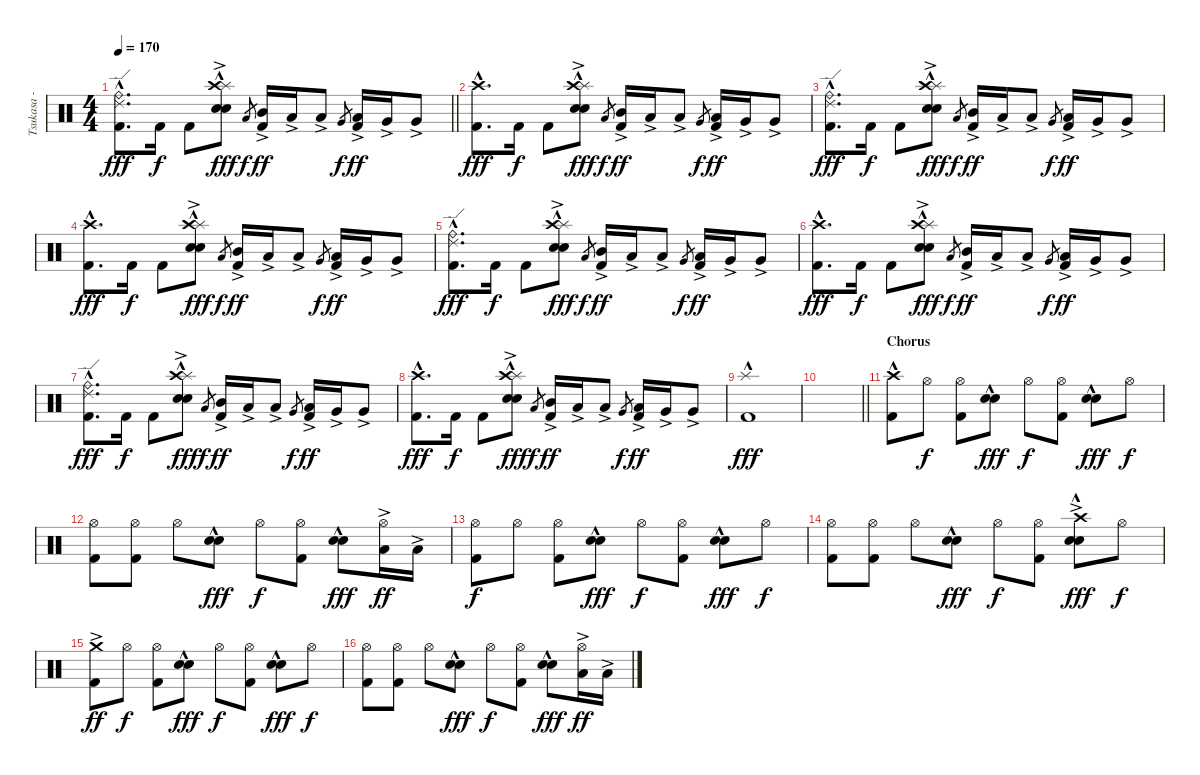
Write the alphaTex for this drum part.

\track ("Tsukasa - Drums" "Tsukasa - ") {instrument percussion}
\staff {score}
\articulation defaults
\ts (4 4)
\tempo 170
\clef neutral
\barLineRight lightlight
\ks c
("Ride (bell)"{hac} "Ride (edge) 2" "Kick (hit) 2").8{d dy fff} "Kick (hit) 2".16{dy f} "Kick (hit) 2".8 ("Splash (hit)"{hac} "Crash high (hit)"{ac} "Electric Snare (hit)"{hac} "Snare (hit) 2").8{dy fff} "Low Tom (hit)".8{gr dy f} ("Mid Tom (hit)"{ac} "Kick (hit) 2").16{dy ff} "Low Tom (hit)"{ac}.16 "Low Tom (hit)"{ac}.8 "Very Low Tom (hit)".8{gr dy f} ("Low Tom (hit)"{ac} "Kick (hit) 2").16{dy ff} "Very Low Tom (hit)"{ac}.16 "Very Low Tom (hit)"{ac}.8 |
\section ("" "")
("Crash high (hit)"{hac} "Kick (hit) 2").8{d dy fff} "Kick (hit) 2".16{dy f} "Kick (hit) 2".8 ("Splash (hit)"{hac} "Crash high (hit)"{ac} "Electric Snare (hit)"{hac} "Snare (hit) 2").8{dy fff} "Low Tom (hit)".8{gr dy f} ("Mid Tom (hit)"{ac} "Kick (hit) 2").16{dy ff} "Low Tom (hit)"{ac}.16 "Low Tom (hit)"{ac}.8 "Very Low Tom (hit)".8{gr dy f} ("Low Tom (hit)"{ac} "Kick (hit) 2").16{dy ff} "Very Low Tom (hit)"{ac}.16 "Very Low Tom (hit)"{ac}.8 |
("Ride (bell)"{hac} "Ride (edge) 2" "Kick (hit) 2").8{d dy fff} "Kick (hit) 2".16{dy f} "Kick (hit) 2".8 ("Splash (hit)"{hac} "Crash high (hit)"{ac} "Electric Snare (hit)"{hac} "Snare (hit) 2").8{dy fff} "Low Tom (hit)".8{gr dy f} ("Mid Tom (hit)"{ac} "Kick (hit) 2").16{dy ff} "Low Tom (hit)"{ac}.16 "Low Tom (hit)"{ac}.8 "Very Low Tom (hit)".8{gr dy f} ("Low Tom (hit)"{ac} "Kick (hit) 2").16{dy ff} "Very Low Tom (hit)"{ac}.16 "Very Low Tom (hit)"{ac}.8 |
("Crash high (hit)"{hac} "Kick (hit) 2").8{d dy fff} "Kick (hit) 2".16{dy f} "Kick (hit) 2".8 ("Splash (hit)"{hac} "Crash high (hit)"{ac} "Electric Snare (hit)"{hac} "Snare (hit) 2").8{dy fff} "Low Tom (hit)".8{gr dy f} ("Mid Tom (hit)"{ac} "Kick (hit) 2").16{dy ff} "Low Tom (hit)"{ac}.16 "Low Tom (hit)"{ac}.8 "Very Low Tom (hit)".8{gr dy f} ("Low Tom (hit)"{ac} "Kick (hit) 2").16{dy ff} "Very Low Tom (hit)"{ac}.16 "Very Low Tom (hit)"{ac}.8 |
("Ride (bell)"{hac} "Ride (edge) 2" "Kick (hit) 2").8{d dy fff} "Kick (hit) 2".16{dy f} "Kick (hit) 2".8 ("Splash (hit)"{hac} "Crash high (hit)"{ac} "Electric Snare (hit)"{hac} "Snare (hit) 2").8{dy fff} "Low Tom (hit)".8{gr dy f} ("Mid Tom (hit)"{ac} "Kick (hit) 2").16{dy ff} "Low Tom (hit)"{ac}.16 "Low Tom (hit)"{ac}.8 "Very Low Tom (hit)".8{gr dy f} ("Low Tom (hit)"{ac} "Kick (hit) 2").16{dy ff} "Very Low Tom (hit)"{ac}.16 "Very Low Tom (hit)"{ac}.8 |
("Crash high (hit)"{hac} "Kick (hit) 2").8{d dy fff} "Kick (hit) 2".16{dy f} "Kick (hit) 2".8 ("Splash (hit)"{hac} "Crash high (hit)"{ac} "Electric Snare (hit)"{hac} "Snare (hit) 2").8{dy fff} "Low Tom (hit)".8{gr dy f} ("Mid Tom (hit)"{ac} "Kick (hit) 2").16{dy ff} "Low Tom (hit)"{ac}.16 "Low Tom (hit)"{ac}.8 "Very Low Tom (hit)".8{gr dy f} ("Low Tom (hit)"{ac} "Kick (hit) 2").16{dy ff} "Very Low Tom (hit)"{ac}.16 "Very Low Tom (hit)"{ac}.8 |
("Ride (bell)"{hac} "Ride (edge) 2" "Kick (hit) 2").8{d dy fff} "Kick (hit) 2".16{dy f} "Kick (hit) 2".8 ("Splash (hit)"{hac} "Crash high (hit)"{ac} "Electric Snare (hit)"{hac} "Snare (hit) 2").8{dy fff} "Low Tom (hit)".8{gr dy f} ("Mid Tom (hit)"{ac} "Kick (hit) 2").16{dy ff} "Low Tom (hit)"{ac}.16 "Low Tom (hit)"{ac}.8 "Very Low Tom (hit)".8{gr dy f} ("Low Tom (hit)"{ac} "Kick (hit) 2").16{dy ff} "Very Low Tom (hit)"{ac}.16 "Very Low Tom (hit)"{ac}.8 |
("Crash high (hit)"{hac} "Kick (hit) 2").8{d dy fff} "Kick (hit) 2".16{dy f} "Kick (hit) 2".8 ("Splash (hit)"{hac} "Crash high (hit)"{ac} "Electric Snare (hit)"{hac} "Snare (hit) 2").8{dy fff} "Low Tom (hit)".8{gr dy f} ("Mid Tom (hit)"{ac} "Kick (hit) 2").16{dy ff} "Low Tom (hit)"{ac}.16 "Low Tom (hit)"{ac}.8 "Very Low Tom (hit)".8{gr dy f} ("Low Tom (hit)"{ac} "Kick (hit) 2").16{dy ff} "Very Low Tom (hit)"{ac}.16 "Very Low Tom (hit)"{ac}.8 |
("Splash (hit)"{hac} "Kick (hit) 2").1{dy fff} |
\barLineRight lightlight
|
\section ("" "Chorus")
("Crash high (hit)"{hac} "Kick (hit) 2").8 "Hi-Hat (open)".8{dy f} ("Hi-Hat (open)" "Kick (hit) 2").8 ("Electric Snare (hit)"{hac} "Snare (hit) 2").8{dy fff} "Hi-Hat (open)".8{dy f} ("Hi-Hat (open)" "Kick (hit) 2").8 ("Electric Snare (hit)"{hac} "Snare (hit) 2").8{dy fff} "Hi-Hat (open)".8{dy f} |
("Hi-Hat (open)" "Kick (hit) 2").8 ("Hi-Hat (open)" "Kick (hit) 2").8 "Hi-Hat (open)".8 ("Electric Snare (hit)"{hac} "Snare (hit) 2").8{dy fff} "Hi-Hat (open)".8{dy f} ("Hi-Hat (open)" "Kick (hit) 2").8 ("Electric Snare (hit)"{hac} "Snare (hit) 2").8{dy fff} ("Hi-Hat (open)" "Low Tom (hit)"{ac}).16{dy ff} "Low Tom (hit)"{ac}.16 |
("Hi-Hat (open)" "Kick (hit) 2").8{dy f} "Hi-Hat (open)".8 ("Hi-Hat (open)" "Kick (hit) 2").8 ("Electric Snare (hit)"{hac} "Snare (hit) 2").8{dy fff} "Hi-Hat (open)".8{dy f} ("Hi-Hat (open)" "Kick (hit) 2").8 ("Electric Snare (hit)"{hac} "Snare (hit) 2").8{dy fff} "Hi-Hat (open)".8{dy f} |
("Hi-Hat (open)" "Kick (hit) 2").8 ("Hi-Hat (open)" "Kick (hit) 2").8 "Hi-Hat (open)".8 ("Electric Snare (hit)"{hac} "Snare (hit) 2").8{dy fff} "Hi-Hat (open)".8{dy f} ("Hi-Hat (open)" "Kick (hit) 2").8 ("Crash high (hit)"{ac} "Electric Snare (hit)"{hac} "Snare (hit) 2").8{dy fff} "Hi-Hat (open)".8{dy f} |
("Crash medium (hit)"{ac} "Kick (hit) 2").8{dy ff} "Hi-Hat (open)".8{dy f} ("Hi-Hat (open)" "Kick (hit) 2").8 ("Electric Snare (hit)"{hac} "Snare (hit) 2").8{dy fff} "Hi-Hat (open)".8{dy f} ("Hi-Hat (open)" "Kick (hit) 2").8 ("Electric Snare (hit)"{hac} "Snare (hit) 2").8{dy fff} "Hi-Hat (open)".8{dy f} |
("Hi-Hat (open)" "Kick (hit) 2").8 ("Hi-Hat (open)" "Kick (hit) 2").8 "Hi-Hat (open)".8 ("Electric Snare (hit)"{hac} "Snare (hit) 2").8{dy fff} "Hi-Hat (open)".8{dy f} ("Hi-Hat (open)" "Kick (hit) 2").8 ("Electric Snare (hit)"{hac} "Snare (hit) 2").8{dy fff} ("Hi-Hat (open)" "Low Tom (hit)"{ac}).16{dy ff} "Low Tom (hit)"{ac}.16
